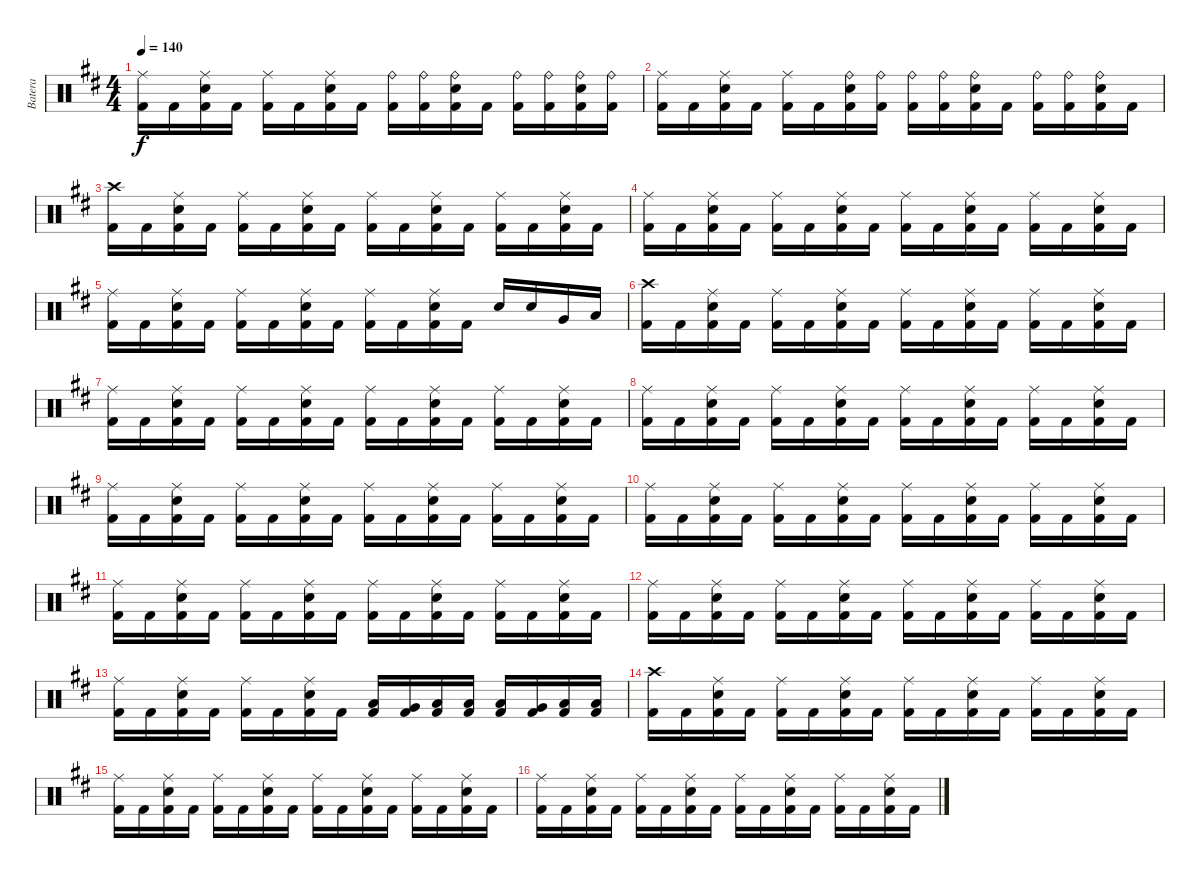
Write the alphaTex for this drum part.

\track ("Batera" "Batera") {instrument percussion}
\staff {score}
\articulation defaults
\ts (4 4)
\tempo 140
\clef neutral
\ks bminor
("Ride (middle)" "Kick (hit) 2").16{dy f} "Kick (hit) 2".16 ("Ride (middle)" "Electric Snare (hit)" "Kick (hit) 2").16 "Kick (hit) 2".16 ("Ride (middle)" "Kick (hit) 2").16 "Kick (hit) 2".16 ("Ride (middle)" "Electric Snare (hit)" "Kick (hit) 2").16 "Kick (hit) 2".16 ("Ride (bell)" "Kick (hit) 2").16 ("Ride (bell)" "Kick (hit) 2").16 ("Ride (bell)" "Electric Snare (hit)" "Kick (hit) 2").16 "Kick (hit) 2".16 ("Ride (bell)" "Kick (hit) 2").16 ("Ride (bell)" "Kick (hit) 2").16 ("Ride (bell)" "Electric Snare (hit)" "Kick (hit) 2").16 ("Ride (bell)" "Kick (hit) 2").16 |
("Ride (middle)" "Kick (hit) 2").16 "Kick (hit) 2".16 ("Ride (middle)" "Electric Snare (hit)" "Kick (hit) 2").16 "Kick (hit) 2".16 ("Ride (middle)" "Kick (hit) 2").16 "Kick (hit) 2".16 ("Ride (bell)" "Electric Snare (hit)" "Kick (hit) 2").16 ("Ride (bell)" "Kick (hit) 2").16 ("Ride (bell)" "Kick (hit) 2").16 ("Ride (bell)" "Kick (hit) 2").16 ("Ride (bell)" "Electric Snare (hit)" "Kick (hit) 2").16 "Kick (hit) 2".16 ("Ride (bell)" "Kick (hit) 2").16 ("Ride (bell)" "Kick (hit) 2").16 ("Ride (bell)" "Electric Snare (hit)" "Kick (hit) 2").16 "Kick (hit) 2".16 |
("Crash high (hit)" "Kick (hit) 2").16 "Kick (hit) 2".16 ("Ride (middle)" "Electric Snare (hit)" "Kick (hit) 2").16 "Kick (hit) 2".16 ("Ride (middle)" "Kick (hit) 2").16 "Kick (hit) 2".16 ("Ride (middle)" "Electric Snare (hit)" "Kick (hit) 2").16 "Kick (hit) 2".16 ("Ride (middle)" "Kick (hit) 2").16 "Kick (hit) 2".16 ("Ride (middle)" "Electric Snare (hit)" "Kick (hit) 2").16 "Kick (hit) 2".16 ("Ride (middle)" "Kick (hit) 2").16 "Kick (hit) 2".16 ("Ride (middle)" "Electric Snare (hit)" "Kick (hit) 2").16 "Kick (hit) 2".16 |
("Ride (middle)" "Kick (hit) 2").16 "Kick (hit) 2".16 ("Ride (middle)" "Electric Snare (hit)" "Kick (hit) 2").16 "Kick (hit) 2".16 ("Ride (middle)" "Kick (hit) 2").16 "Kick (hit) 2".16 ("Ride (middle)" "Electric Snare (hit)" "Kick (hit) 2").16 "Kick (hit) 2".16 ("Ride (middle)" "Kick (hit) 2").16 "Kick (hit) 2".16 ("Ride (middle)" "Electric Snare (hit)" "Kick (hit) 2").16 "Kick (hit) 2".16 ("Ride (middle)" "Kick (hit) 2").16 "Kick (hit) 2".16 ("Ride (middle)" "Electric Snare (hit)" "Kick (hit) 2").16 "Kick (hit) 2".16 |
("Ride (middle)" "Kick (hit) 2").16 "Kick (hit) 2".16 ("Ride (middle)" "Electric Snare (hit)" "Kick (hit) 2").16 "Kick (hit) 2".16 ("Ride (middle)" "Kick (hit) 2").16 "Kick (hit) 2".16 ("Ride (middle)" "Electric Snare (hit)" "Kick (hit) 2").16 "Kick (hit) 2".16 ("Ride (middle)" "Kick (hit) 2").16 "Kick (hit) 2".16 ("Ride (middle)" "Electric Snare (hit)" "Kick (hit) 2").16 "Kick (hit) 2".16 "Electric Snare (hit)".16 "Electric Snare (hit)".16 "Very Low Tom (hit)".16 "Low Floor Tom (hit)".16 |
("Crash high (hit)" "Kick (hit) 2").16 "Kick (hit) 2".16 ("Ride (middle)" "Electric Snare (hit)" "Kick (hit) 2").16 "Kick (hit) 2".16 ("Ride (middle)" "Kick (hit) 2").16 "Kick (hit) 2".16 ("Ride (middle)" "Electric Snare (hit)" "Kick (hit) 2").16 "Kick (hit) 2".16 ("Ride (middle)" "Kick (hit) 2").16 "Kick (hit) 2".16 ("Ride (middle)" "Electric Snare (hit)" "Kick (hit) 2").16 "Kick (hit) 2".16 ("Ride (middle)" "Kick (hit) 2").16 "Kick (hit) 2".16 ("Ride (middle)" "Electric Snare (hit)" "Kick (hit) 2").16 "Kick (hit) 2".16 |
("Ride (middle)" "Kick (hit) 2").16 "Kick (hit) 2".16 ("Ride (middle)" "Electric Snare (hit)" "Kick (hit) 2").16 "Kick (hit) 2".16 ("Ride (middle)" "Kick (hit) 2").16 "Kick (hit) 2".16 ("Ride (middle)" "Electric Snare (hit)" "Kick (hit) 2").16 "Kick (hit) 2".16 ("Ride (middle)" "Kick (hit) 2").16 "Kick (hit) 2".16 ("Ride (middle)" "Electric Snare (hit)" "Kick (hit) 2").16 "Kick (hit) 2".16 ("Ride (middle)" "Kick (hit) 2").16 "Kick (hit) 2".16 ("Ride (middle)" "Electric Snare (hit)" "Kick (hit) 2").16 "Kick (hit) 2".16 |
("Ride (middle)" "Kick (hit) 2").16 "Kick (hit) 2".16 ("Ride (middle)" "Electric Snare (hit)" "Kick (hit) 2").16 "Kick (hit) 2".16 ("Ride (middle)" "Kick (hit) 2").16 "Kick (hit) 2".16 ("Ride (middle)" "Electric Snare (hit)" "Kick (hit) 2").16 "Kick (hit) 2".16 ("Ride (middle)" "Kick (hit) 2").16 "Kick (hit) 2".16 ("Ride (middle)" "Electric Snare (hit)" "Kick (hit) 2").16 "Kick (hit) 2".16 ("Ride (middle)" "Kick (hit) 2").16 "Kick (hit) 2".16 ("Ride (middle)" "Electric Snare (hit)" "Kick (hit) 2").16 "Kick (hit) 2".16 |
("Ride (middle)" "Kick (hit) 2").16 "Kick (hit) 2".16 ("Ride (middle)" "Electric Snare (hit)" "Kick (hit) 2").16 "Kick (hit) 2".16 ("Ride (middle)" "Kick (hit) 2").16 "Kick (hit) 2".16 ("Ride (middle)" "Electric Snare (hit)" "Kick (hit) 2").16 "Kick (hit) 2".16 ("Ride (middle)" "Kick (hit) 2").16 "Kick (hit) 2".16 ("Ride (middle)" "Electric Snare (hit)" "Kick (hit) 2").16 "Kick (hit) 2".16 ("Ride (middle)" "Kick (hit) 2").16 "Kick (hit) 2".16 ("Ride (middle)" "Electric Snare (hit)" "Kick (hit) 2").16 "Kick (hit) 2".16 |
("Ride (middle)" "Kick (hit) 2").16 "Kick (hit) 2".16 ("Ride (middle)" "Electric Snare (hit)" "Kick (hit) 2").16 "Kick (hit) 2".16 ("Ride (middle)" "Kick (hit) 2").16 "Kick (hit) 2".16 ("Ride (middle)" "Electric Snare (hit)" "Kick (hit) 2").16 "Kick (hit) 2".16 ("Ride (middle)" "Kick (hit) 2").16 "Kick (hit) 2".16 ("Ride (middle)" "Electric Snare (hit)" "Kick (hit) 2").16 "Kick (hit) 2".16 ("Ride (middle)" "Kick (hit) 2").16 "Kick (hit) 2".16 ("Ride (middle)" "Electric Snare (hit)" "Kick (hit) 2").16 "Kick (hit) 2".16 |
("Ride (middle)" "Kick (hit) 2").16 "Kick (hit) 2".16 ("Ride (middle)" "Electric Snare (hit)" "Kick (hit) 2").16 "Kick (hit) 2".16 ("Ride (middle)" "Kick (hit) 2").16 "Kick (hit) 2".16 ("Ride (middle)" "Electric Snare (hit)" "Kick (hit) 2").16 "Kick (hit) 2".16 ("Ride (middle)" "Kick (hit) 2").16 "Kick (hit) 2".16 ("Ride (middle)" "Electric Snare (hit)" "Kick (hit) 2").16 "Kick (hit) 2".16 ("Ride (middle)" "Kick (hit) 2").16 "Kick (hit) 2".16 ("Ride (middle)" "Electric Snare (hit)" "Kick (hit) 2").16 "Kick (hit) 2".16 |
("Ride (middle)" "Kick (hit) 2").16 "Kick (hit) 2".16 ("Ride (middle)" "Electric Snare (hit)" "Kick (hit) 2").16 "Kick (hit) 2".16 ("Ride (middle)" "Kick (hit) 2").16 "Kick (hit) 2".16 ("Ride (middle)" "Electric Snare (hit)" "Kick (hit) 2").16 "Kick (hit) 2".16 ("Ride (middle)" "Kick (hit) 2").16 "Kick (hit) 2".16 ("Ride (middle)" "Electric Snare (hit)" "Kick (hit) 2").16 "Kick (hit) 2".16 ("Ride (middle)" "Kick (hit) 2").16 "Kick (hit) 2".16 ("Ride (middle)" "Electric Snare (hit)" "Kick (hit) 2").16 "Kick (hit) 2".16 |
("Ride (middle)" "Kick (hit) 2").16 "Kick (hit) 2".16 ("Ride (middle)" "Electric Snare (hit)" "Kick (hit) 2").16 "Kick (hit) 2".16 ("Ride (middle)" "Kick (hit) 2").16 "Kick (hit) 2".16 ("Ride (middle)" "Electric Snare (hit)" "Kick (hit) 2").16 "Kick (hit) 2".16 ("Low Floor Tom (hit)" "Kick (hit) 2").16 ("Very Low Tom (hit)" "Kick (hit) 2").16 ("Low Floor Tom (hit)" "Kick (hit) 2").16 ("Low Tom (hit)" "Kick (hit) 2").16 ("Low Floor Tom (hit)" "Kick (hit) 2").16 ("Very Low Tom (hit)" "Kick (hit) 2").16 ("Low Floor Tom (hit)" "Kick (hit) 2").16 ("Low Tom (hit)" "Kick (hit) 2").16 |
("Crash high (hit)" "Kick (hit) 2").16 "Kick (hit) 2".16 ("Ride (middle)" "Electric Snare (hit)" "Kick (hit) 2").16 "Kick (hit) 2".16 ("Ride (middle)" "Kick (hit) 2").16 "Kick (hit) 2".16 ("Ride (middle)" "Electric Snare (hit)" "Kick (hit) 2").16 "Kick (hit) 2".16 ("Ride (middle)" "Kick (hit) 2").16 "Kick (hit) 2".16 ("Ride (middle)" "Electric Snare (hit)" "Kick (hit) 2").16 "Kick (hit) 2".16 ("Ride (middle)" "Kick (hit) 2").16 "Kick (hit) 2".16 ("Ride (middle)" "Electric Snare (hit)" "Kick (hit) 2").16 "Kick (hit) 2".16 |
("Ride (middle)" "Kick (hit) 2").16 "Kick (hit) 2".16 ("Ride (middle)" "Electric Snare (hit)" "Kick (hit) 2").16 "Kick (hit) 2".16 ("Ride (middle)" "Kick (hit) 2").16 "Kick (hit) 2".16 ("Ride (middle)" "Electric Snare (hit)" "Kick (hit) 2").16 "Kick (hit) 2".16 ("Ride (middle)" "Kick (hit) 2").16 "Kick (hit) 2".16 ("Ride (middle)" "Electric Snare (hit)" "Kick (hit) 2").16 "Kick (hit) 2".16 ("Ride (middle)" "Kick (hit) 2").16 "Kick (hit) 2".16 ("Ride (middle)" "Electric Snare (hit)" "Kick (hit) 2").16 "Kick (hit) 2".16 |
("Ride (middle)" "Kick (hit) 2").16 "Kick (hit) 2".16 ("Ride (middle)" "Electric Snare (hit)" "Kick (hit) 2").16 "Kick (hit) 2".16 ("Ride (middle)" "Kick (hit) 2").16 "Kick (hit) 2".16 ("Ride (middle)" "Electric Snare (hit)" "Kick (hit) 2").16 "Kick (hit) 2".16 ("Ride (middle)" "Kick (hit) 2").16 "Kick (hit) 2".16 ("Ride (middle)" "Electric Snare (hit)" "Kick (hit) 2").16 "Kick (hit) 2".16 ("Ride (middle)" "Kick (hit) 2").16 "Kick (hit) 2".16 ("Ride (middle)" "Electric Snare (hit)" "Kick (hit) 2").16 "Kick (hit) 2".16
